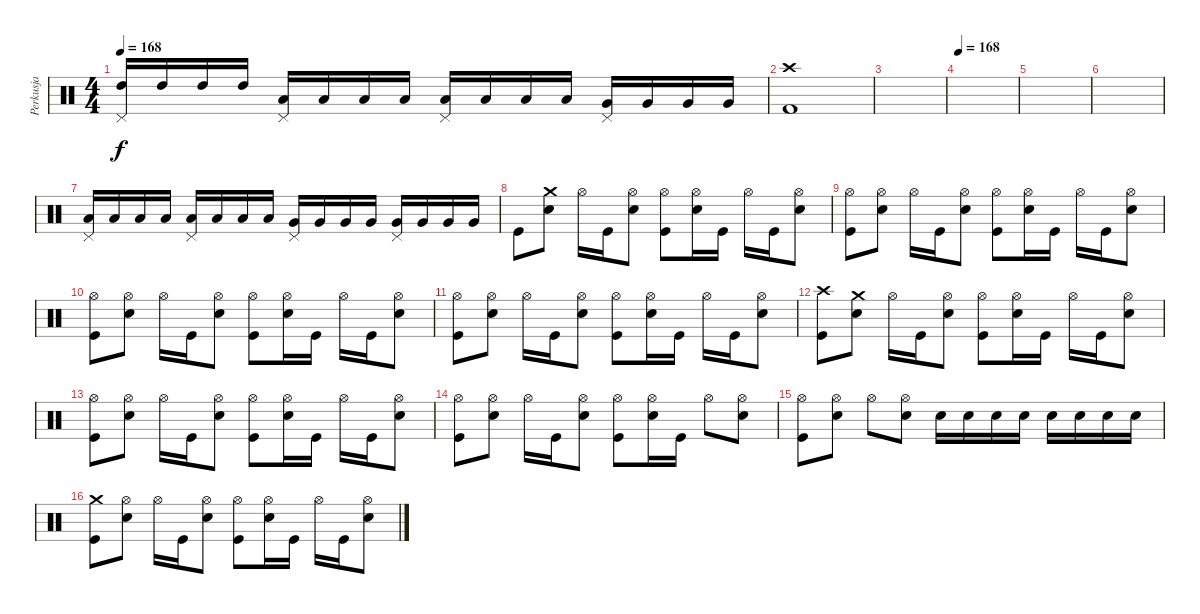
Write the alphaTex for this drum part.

\track ("Perkusja" "Perkusja") {instrument percussion}
\staff {score}
\articulation defaults
\ts (4 4)
\tempo 168
\clef neutral
\ks c
("Pedal Hi-Hat (hit)" "High Tom (hit)").16{dy f} "High Tom (hit)".16 "High Tom (hit)".16 "High Tom (hit)".16 ("Pedal Hi-Hat (hit)" "Low Tom (hit)").16 "Low Tom (hit)".16 "Low Tom (hit)".16 "Low Tom (hit)".16 ("Pedal Hi-Hat (hit)" "Low Tom (hit)").16 "Low Tom (hit)".16 "Low Tom (hit)".16 "Low Tom (hit)".16 ("Pedal Hi-Hat (hit)" "Very Low Tom (hit)").16 "Very Low Tom (hit)".16 "Very Low Tom (hit)".16 "Very Low Tom (hit)".16 |
("Crash high (hit)" "Kick (hit) 2").1 |
|
\tempo 168
|
|
|
("Pedal Hi-Hat (hit)" "Low Tom (hit)").16 "Low Tom (hit)".16 "Low Tom (hit)".16 "Low Tom (hit)".16 ("Pedal Hi-Hat (hit)" "Low Tom (hit)").16 "Low Tom (hit)".16 "Low Tom (hit)".16 "Low Tom (hit)".16 ("Pedal Hi-Hat (hit)" "Very Low Tom (hit)").16 "Very Low Tom (hit)".16 "Very Low Tom (hit)".16 "Very Low Tom (hit)".16 ("Pedal Hi-Hat (hit)" "Very Low Tom (hit)").16 "Very Low Tom (hit)".16 "Very Low Tom (hit)".16 "Very Low Tom (hit)".16 |
"Kick (hit)".8 ("Crash medium (hit)" "Snare (hit) 2").8 "Hi-Hat (open)".16 "Kick (hit)".16 ("Hi-Hat (open)" "Snare (hit) 2").8 ("Kick (hit)" "Hi-Hat (open)").8 ("Hi-Hat (open)" "Snare (hit) 2").16 "Kick (hit)".16 "Hi-Hat (open)".16 "Kick (hit)".16 ("Hi-Hat (open)" "Snare (hit) 2").8 |
("Kick (hit)" "Hi-Hat (open)").8 ("Hi-Hat (open)" "Snare (hit) 2").8 "Hi-Hat (open)".16 "Kick (hit)".16 ("Hi-Hat (open)" "Snare (hit) 2").8 ("Kick (hit)" "Hi-Hat (open)").8 ("Hi-Hat (open)" "Snare (hit) 2").16 "Kick (hit)".16 "Hi-Hat (open)".16 "Kick (hit)".16 ("Hi-Hat (open)" "Snare (hit) 2").8 |
("Kick (hit)" "Hi-Hat (open)").8 ("Hi-Hat (open)" "Snare (hit) 2").8 "Hi-Hat (open)".16 "Kick (hit)".16 ("Hi-Hat (open)" "Snare (hit) 2").8 ("Kick (hit)" "Hi-Hat (open)").8 ("Hi-Hat (open)" "Snare (hit) 2").16 "Kick (hit)".16 "Hi-Hat (open)".16 "Kick (hit)".16 ("Hi-Hat (open)" "Snare (hit) 2").8 |
("Kick (hit)" "Hi-Hat (open)").8 ("Hi-Hat (open)" "Snare (hit) 2").8 "Hi-Hat (open)".16 "Kick (hit)".16 ("Hi-Hat (open)" "Snare (hit) 2").8 ("Kick (hit)" "Hi-Hat (open)").8 ("Hi-Hat (open)" "Snare (hit) 2").16 "Kick (hit)".16 "Hi-Hat (open)".16 "Kick (hit)".16 ("Hi-Hat (open)" "Snare (hit) 2").8 |
("Kick (hit)" "Crash high (hit)").8 ("Crash medium (hit)" "Snare (hit) 2").8 "Hi-Hat (open)".16 "Kick (hit)".16 ("Hi-Hat (open)" "Snare (hit) 2").8 ("Kick (hit)" "Hi-Hat (open)").8 ("Hi-Hat (open)" "Snare (hit) 2").16 "Kick (hit)".16 "Hi-Hat (open)".16 "Kick (hit)".16 ("Hi-Hat (open)" "Snare (hit) 2").8 |
("Kick (hit)" "Hi-Hat (open)").8 ("Hi-Hat (open)" "Snare (hit) 2").8 "Hi-Hat (open)".16 "Kick (hit)".16 ("Hi-Hat (open)" "Snare (hit) 2").8 ("Kick (hit)" "Hi-Hat (open)").8 ("Hi-Hat (open)" "Snare (hit) 2").16 "Kick (hit)".16 "Hi-Hat (open)".16 "Kick (hit)".16 ("Hi-Hat (open)" "Snare (hit) 2").8 |
("Kick (hit)" "Hi-Hat (open)").8 ("Hi-Hat (open)" "Snare (hit) 2").8 "Hi-Hat (open)".16 "Kick (hit)".16 ("Hi-Hat (open)" "Snare (hit) 2").8 ("Kick (hit)" "Hi-Hat (open)").8 ("Hi-Hat (open)" "Snare (hit) 2").16 "Kick (hit)".16 "Hi-Hat (open)".8 ("Hi-Hat (open)" "Snare (hit) 2").8 |
("Kick (hit)" "Hi-Hat (open)").8 ("Hi-Hat (open)" "Snare (hit) 2").8 "Hi-Hat (open)".8 ("Hi-Hat (open)" "Snare (hit) 2").8 "Snare (hit) 2".16 "Snare (hit) 2".16 "Snare (hit) 2".16 "Snare (hit) 2".16 "Snare (hit) 2".16 "Snare (hit) 2".16 "Snare (hit) 2".16 "Snare (hit) 2".16 |
("Kick (hit)" "Crash medium (hit)").8 ("Hi-Hat (open)" "Snare (hit) 2").8 "Hi-Hat (open)".16 "Kick (hit)".16 ("Hi-Hat (open)" "Snare (hit) 2").8 ("Kick (hit)" "Hi-Hat (open)").8 ("Hi-Hat (open)" "Snare (hit) 2").16 "Kick (hit)".16 "Hi-Hat (open)".16 "Kick (hit)".16 ("Hi-Hat (open)" "Snare (hit) 2").8
